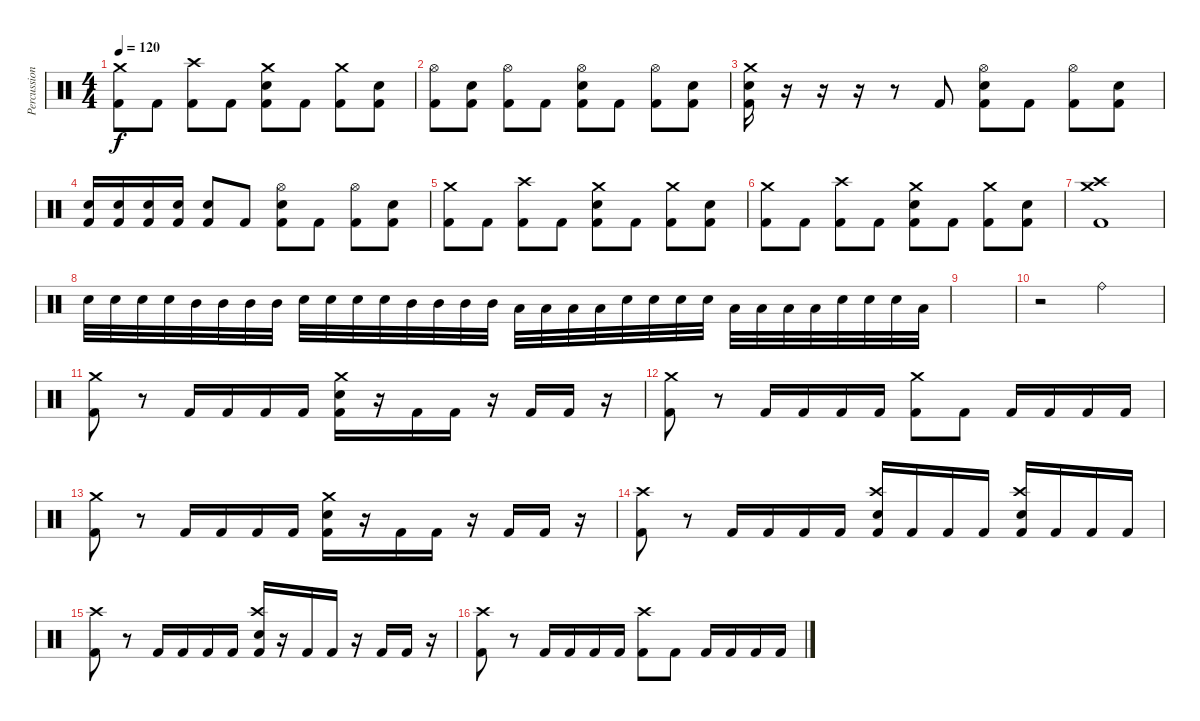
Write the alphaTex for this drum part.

\track ("Percussion" "Percussion") {instrument percussion}
\staff {score}
\articulation defaults
\ts (4 4)
\tempo 120
\clef neutral
\ks c
("Crash medium (hit)" "Kick (hit) 2").8{dy f} "Kick (hit) 2".8 ("Crash high (hit)" "Kick (hit) 2").8 "Kick (hit) 2".8 ("Crash medium (hit)" "Electric Snare (hit)" "Kick (hit) 2").8 "Kick (hit) 2".8 ("Crash medium (hit)" "Kick (hit) 2").8 ("Electric Snare (hit)" "Kick (hit) 2").8 |
("Hi-Hat (open)" "Kick (hit) 2").8 ("Electric Snare (hit)" "Kick (hit) 2").8 ("Hi-Hat (open)" "Kick (hit) 2").8 "Kick (hit) 2".8 ("Hi-Hat (open)" "Electric Snare (hit)" "Kick (hit) 2").8 "Kick (hit) 2".8 ("Hi-Hat (open)" "Kick (hit) 2").8 ("Electric Snare (hit)" "Kick (hit) 2").8 |
("Crash medium (hit)" "Electric Snare (hit)" "Kick (hit) 2").16 r.16 r.16 r.16 r.8 "Kick (hit) 2".8 ("Hi-Hat (open)" "Electric Snare (hit)" "Kick (hit) 2").8 "Kick (hit) 2".8 ("Hi-Hat (open)" "Kick (hit) 2").8 ("Electric Snare (hit)" "Kick (hit) 2").8 |
("Electric Snare (hit)" "Kick (hit) 2").16 ("Electric Snare (hit)" "Kick (hit) 2").16 ("Electric Snare (hit)" "Kick (hit) 2").16 ("Electric Snare (hit)" "Kick (hit) 2").16 ("Electric Snare (hit)" "Kick (hit) 2").8 "Kick (hit) 2".8 ("Hi-Hat (open)" "Electric Snare (hit)" "Kick (hit) 2").8 "Kick (hit) 2".8 ("Hi-Hat (open)" "Kick (hit) 2").8 ("Electric Snare (hit)" "Kick (hit) 2").8 |
("Crash medium (hit)" "Kick (hit) 2").8 "Kick (hit) 2".8 ("Crash high (hit)" "Kick (hit) 2").8 "Kick (hit) 2".8 ("Crash medium (hit)" "Electric Snare (hit)" "Kick (hit) 2").8 "Kick (hit) 2".8 ("Crash medium (hit)" "Kick (hit) 2").8 ("Electric Snare (hit)" "Kick (hit) 2").8 |
("Crash medium (hit)" "Kick (hit) 2").8 "Kick (hit) 2".8 ("Crash high (hit)" "Kick (hit) 2").8 "Kick (hit) 2".8 ("Crash medium (hit)" "Electric Snare (hit)" "Kick (hit) 2").8 "Kick (hit) 2".8 ("Crash medium (hit)" "Kick (hit) 2").8 ("Electric Snare (hit)" "Kick (hit) 2").8 |
("Crash medium (hit)" "Crash high (hit)" "Kick (hit) 2").1 |
"Electric Snare (hit)".32 "Electric Snare (hit)".32 "Electric Snare (hit)".32 "Electric Snare (hit)".32 "Mid Tom (hit)".32 "Mid Tom (hit)".32 "Mid Tom (hit)".32 "Mid Tom (hit)".32 "Electric Snare (hit)".32 "Electric Snare (hit)".32 "Electric Snare (hit)".32 "Electric Snare (hit)".32 "Mid Tom (hit)".32 "Mid Tom (hit)".32 "Mid Tom (hit)".32 "Mid Tom (hit)".32 "Low Tom (hit)".32 "Low Tom (hit)".32 "Low Tom (hit)".32 "Low Tom (hit)".32 "Electric Snare (hit)".32 "Electric Snare (hit)".32 "Electric Snare (hit)".32 "Electric Snare (hit)".32 "Low Tom (hit)".32 "Low Tom (hit)".32 "Low Tom (hit)".32 "Low Tom (hit)".32 "Electric Snare (hit)".32 "Electric Snare (hit)".32 "Electric Snare (hit)".32 "Low Tom (hit)".32 |
|
r.2 "Ride (bell)".2 |
("Crash medium (hit)" "Kick (hit) 2").8 r.8 "Kick (hit) 2".16 "Kick (hit) 2".16 "Kick (hit) 2".16 "Kick (hit) 2".16 ("Crash medium (hit)" "Electric Snare (hit)" "Kick (hit) 2").16 r.16 "Kick (hit) 2".16 "Kick (hit) 2".16 r.16 "Kick (hit) 2".16 "Kick (hit) 2".16 r.16 |
("Crash medium (hit)" "Kick (hit) 2").8 r.8 "Kick (hit) 2".16 "Kick (hit) 2".16 "Kick (hit) 2".16 "Kick (hit) 2".16 ("Crash medium (hit)" "Kick (hit) 2").8 "Kick (hit) 2".8 "Kick (hit) 2".16 "Kick (hit) 2".16 "Kick (hit) 2".16 "Kick (hit) 2".16 |
("Crash medium (hit)" "Kick (hit) 2").8 r.8 "Kick (hit) 2".16 "Kick (hit) 2".16 "Kick (hit) 2".16 "Kick (hit) 2".16 ("Crash medium (hit)" "Electric Snare (hit)" "Kick (hit) 2").16 r.16 "Kick (hit) 2".16 "Kick (hit) 2".16 r.16 "Kick (hit) 2".16 "Kick (hit) 2".16 r.16 |
("Crash high (hit)" "Kick (hit) 2").8 r.8 "Kick (hit) 2".16 "Kick (hit) 2".16 "Kick (hit) 2".16 "Kick (hit) 2".16 ("Crash high (hit)" "Electric Snare (hit)" "Kick (hit) 2").16 "Kick (hit) 2".16 "Kick (hit) 2".16 "Kick (hit) 2".16 ("Crash high (hit)" "Electric Snare (hit)" "Kick (hit) 2").16 "Kick (hit) 2".16 "Kick (hit) 2".16 "Kick (hit) 2".16 |
("Crash high (hit)" "Kick (hit) 2").8 r.8 "Kick (hit) 2".16 "Kick (hit) 2".16 "Kick (hit) 2".16 "Kick (hit) 2".16 ("Crash high (hit)" "Electric Snare (hit)" "Kick (hit) 2").16 r.16 "Kick (hit) 2".16 "Kick (hit) 2".16 r.16 "Kick (hit) 2".16 "Kick (hit) 2".16 r.16 |
("Crash high (hit)" "Kick (hit) 2").8 r.8 "Kick (hit) 2".16 "Kick (hit) 2".16 "Kick (hit) 2".16 "Kick (hit) 2".16 ("Crash high (hit)" "Kick (hit) 2").8 "Kick (hit) 2".8 "Kick (hit) 2".16 "Kick (hit) 2".16 "Kick (hit) 2".16 "Kick (hit) 2".16
